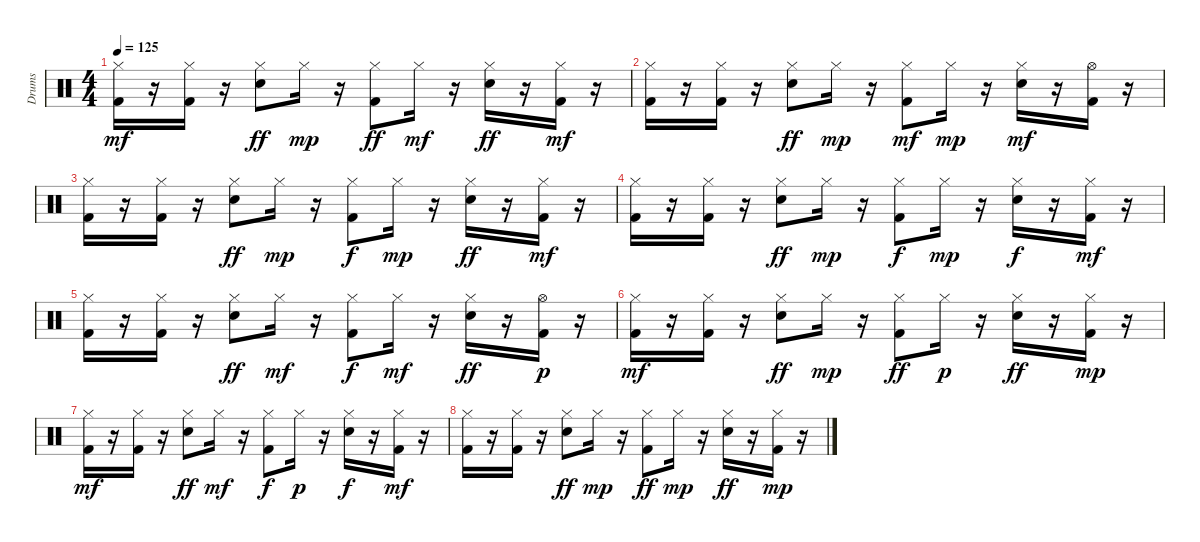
\track ("Drums" "Drums") {instrument percussion}
\staff {score}
\articulation defaults
\ts (4 4)
\tempo 125
\clef neutral
\ks c
("Hi-Hat (closed)" "Kick (hit) 2").16{dy mf} r.16 ("Hi-Hat (closed)" "Kick (hit) 2").16 r.16 ("Hi-Hat (closed)" "Snare (hit) 2").8{dy ff} "Hi-Hat (closed)".16{dy mp} r.16 ("Hi-Hat (closed)" "Kick (hit) 2").8{dy ff} "Hi-Hat (closed)".16{dy mf} r.16 ("Snare (hit) 2" "Hi-Hat (closed)").16{dy ff} r.16 ("Kick (hit) 2" "Hi-Hat (closed)").16{dy mf} r.16 |
("Hi-Hat (closed)" "Kick (hit) 2").16 r.16 ("Kick (hit) 2" "Hi-Hat (closed)").16 r.16 ("Hi-Hat (closed)" "Snare (hit) 2").8{dy ff} "Hi-Hat (closed)".16{dy mp} r.16 ("Kick (hit) 2" "Hi-Hat (closed)").8{dy mf} "Hi-Hat (closed)".16{dy mp} r.16 ("Snare (hit) 2" "Hi-Hat (closed)").16{dy mf} r.16 ("Hi-Hat (open)" "Kick (hit) 2").16 r.16 |
("Hi-Hat (closed)" "Kick (hit) 2").16{volume 14} r.16 ("Hi-Hat (closed)" "Kick (hit) 2").16{volume 14} r.16 ("Snare (hit) 2" "Hi-Hat (closed)").8{dy ff volume 14} "Hi-Hat (closed)".16{dy mp volume 13} r.16 ("Hi-Hat (closed)" "Kick (hit) 2").8{dy f volume 13} "Hi-Hat (closed)".16{dy mp volume 13} r.16 ("Hi-Hat (closed)" "Snare (hit) 2").16{dy ff volume 12} r.16 ("Hi-Hat (closed)" "Kick (hit) 2").16{dy mf volume 12} r.16 |
("Hi-Hat (closed)" "Kick (hit) 2").16{volume 12} r.16 ("Hi-Hat (closed)" "Kick (hit) 2").16{volume 12} r.16 ("Hi-Hat (closed)" "Snare (hit) 2").8{dy ff volume 11} "Hi-Hat (closed)".16{dy mp volume 11} r.16 ("Hi-Hat (closed)" "Kick (hit) 2").8{dy f volume 11} "Hi-Hat (closed)".16{dy mp volume 10} r.16 ("Snare (hit) 2" "Hi-Hat (closed)").16{dy f volume 10} r.16 ("Kick (hit) 2" "Hi-Hat (closed)").16{dy mf volume 10} r.16 |
("Hi-Hat (closed)" "Kick (hit) 2").16{volume 10} r.16 ("Kick (hit) 2" "Hi-Hat (closed)").16{volume 9} r.16 ("Snare (hit) 2" "Hi-Hat (closed)").8{dy ff volume 9} "Hi-Hat (closed)".16{dy mf volume 9} r.16 ("Kick (hit) 2" "Hi-Hat (closed)").8{dy f volume 8} "Hi-Hat (closed)".16{dy mf volume 8} r.16 ("Hi-Hat (closed)" "Snare (hit) 2").16{dy ff volume 8} r.16 ("Kick (hit) 2" "Hi-Hat (open)").16{dy p volume 8} r.16 |
("Hi-Hat (closed)" "Kick (hit) 2").16{dy mf volume 7} r.16 ("Kick (hit) 2" "Hi-Hat (closed)").16{volume 7} r.16 ("Hi-Hat (closed)" "Snare (hit) 2").8{dy ff volume 7} "Hi-Hat (closed)".16{dy mp volume 6} r.16 ("Kick (hit) 2" "Hi-Hat (closed)").8{dy ff volume 6} "Hi-Hat (closed)".16{dy p volume 6} r.16 ("Hi-Hat (closed)" "Snare (hit) 2").16{dy ff volume 6} r.16 ("Hi-Hat (closed)" "Kick (hit) 2").16{dy mp volume 5} r.16 |
("Hi-Hat (closed)" "Kick (hit) 2").16{dy mf volume 5} r.16 ("Hi-Hat (closed)" "Kick (hit) 2").16{volume 5} r.16 ("Snare (hit) 2" "Hi-Hat (closed)").8{dy ff volume 4} "Hi-Hat (closed)".16{dy mf volume 4} r.16 ("Kick (hit) 2" "Hi-Hat (closed)").8{dy f volume 4} "Hi-Hat (closed)".16{dy p volume 4} r.16 ("Snare (hit) 2" "Hi-Hat (closed)").16{dy f volume 3} r.16 ("Hi-Hat (closed)" "Kick (hit) 2").16{dy mf volume 3} r.16 |
("Hi-Hat (closed)" "Kick (hit) 2").16{volume 3} r.16 ("Hi-Hat (closed)" "Kick (hit) 2").16{volume 2} r.16 ("Snare (hit) 2" "Hi-Hat (closed)").8{dy ff volume 2} "Hi-Hat (closed)".16{dy mp volume 2} r.16 ("Kick (hit) 2" "Hi-Hat (closed)").8{dy ff volume 1} "Hi-Hat (closed)".16{dy mp volume 1} r.16 ("Snare (hit) 2" "Hi-Hat (closed)").16{dy ff volume 1} r.16 ("Hi-Hat (closed)" "Kick (hit) 2").16{dy mp volume 0} r.16
